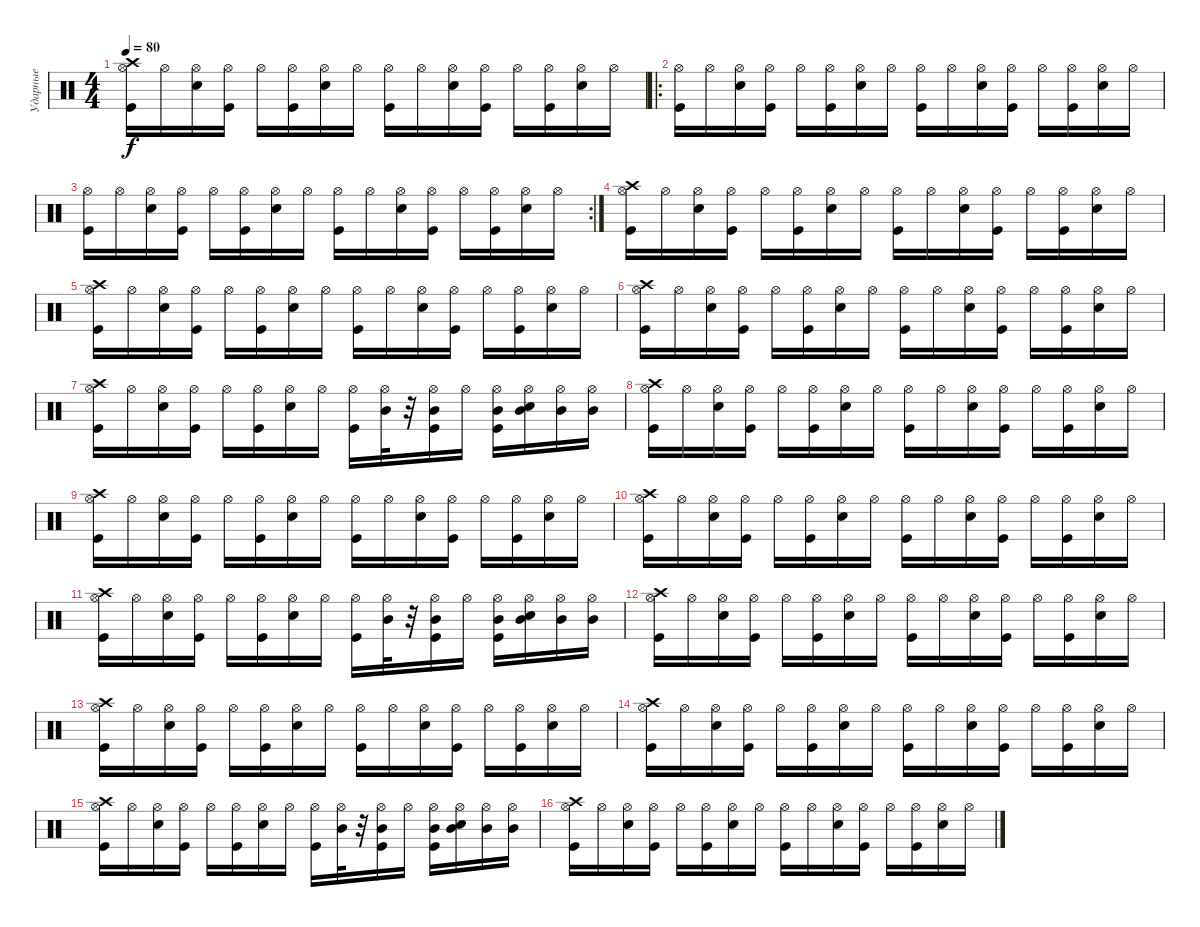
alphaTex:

\track ("Ударные" "Ударные") {instrument percussion}
\staff {score}
\articulation defaults
\ts (4 4)
\tempo 80
\clef neutral
\ks c
("Kick (hit)" "Crash high (hit)" "Hi-Hat (open)").16{dy f} "Hi-Hat (open)".16 ("Electric Snare (hit)" "Hi-Hat (open)").16 ("Kick (hit)" "Hi-Hat (open)").16 "Hi-Hat (open)".16 ("Hi-Hat (open)" "Kick (hit)").16 ("Hi-Hat (open)" "Electric Snare (hit)").16 "Hi-Hat (open)".16 ("Kick (hit)" "Hi-Hat (open)").16 "Hi-Hat (open)".16 ("Electric Snare (hit)" "Hi-Hat (open)").16 ("Kick (hit)" "Hi-Hat (open)").16 "Hi-Hat (open)".16 ("Hi-Hat (open)" "Kick (hit)").16 ("Hi-Hat (open)" "Electric Snare (hit)").16 "Hi-Hat (open)".16 |
\ro
("Kick (hit)" "Hi-Hat (open)").16 "Hi-Hat (open)".16 ("Electric Snare (hit)" "Hi-Hat (open)").16 ("Kick (hit)" "Hi-Hat (open)").16 "Hi-Hat (open)".16 ("Hi-Hat (open)" "Kick (hit)").16 ("Hi-Hat (open)" "Electric Snare (hit)").16 "Hi-Hat (open)".16 ("Kick (hit)" "Hi-Hat (open)").16 "Hi-Hat (open)".16 ("Electric Snare (hit)" "Hi-Hat (open)").16 ("Kick (hit)" "Hi-Hat (open)").16 "Hi-Hat (open)".16 ("Hi-Hat (open)" "Kick (hit)").16 ("Hi-Hat (open)" "Electric Snare (hit)").16 "Hi-Hat (open)".16 |
\rc 2
("Kick (hit)" "Hi-Hat (open)").16 "Hi-Hat (open)".16 ("Electric Snare (hit)" "Hi-Hat (open)").16 ("Kick (hit)" "Hi-Hat (open)").16 "Hi-Hat (open)".16 ("Hi-Hat (open)" "Kick (hit)").16 ("Hi-Hat (open)" "Electric Snare (hit)").16 "Hi-Hat (open)".16 ("Kick (hit)" "Hi-Hat (open)").16 "Hi-Hat (open)".16 ("Electric Snare (hit)" "Hi-Hat (open)").16 ("Kick (hit)" "Hi-Hat (open)").16 "Hi-Hat (open)".16 ("Hi-Hat (open)" "Kick (hit)").16 ("Hi-Hat (open)" "Electric Snare (hit)").16 "Hi-Hat (open)".16 |
("Kick (hit)" "Crash high (hit)" "Hi-Hat (open)").16 "Hi-Hat (open)".16 ("Electric Snare (hit)" "Hi-Hat (open)").16 ("Kick (hit)" "Hi-Hat (open)").16 "Hi-Hat (open)".16 ("Hi-Hat (open)" "Kick (hit)").16 ("Hi-Hat (open)" "Electric Snare (hit)").16 "Hi-Hat (open)".16 ("Kick (hit)" "Hi-Hat (open)").16 "Hi-Hat (open)".16 ("Electric Snare (hit)" "Hi-Hat (open)").16 ("Kick (hit)" "Hi-Hat (open)").16 "Hi-Hat (open)".16 ("Hi-Hat (open)" "Kick (hit)").16 ("Hi-Hat (open)" "Electric Snare (hit)").16 "Hi-Hat (open)".16 |
("Kick (hit)" "Crash high (hit)" "Hi-Hat (open)").16 "Hi-Hat (open)".16 ("Electric Snare (hit)" "Hi-Hat (open)").16 ("Kick (hit)" "Hi-Hat (open)").16 "Hi-Hat (open)".16 ("Hi-Hat (open)" "Kick (hit)").16 ("Hi-Hat (open)" "Electric Snare (hit)").16 "Hi-Hat (open)".16 ("Kick (hit)" "Hi-Hat (open)").16 "Hi-Hat (open)".16 ("Electric Snare (hit)" "Hi-Hat (open)").16 ("Kick (hit)" "Hi-Hat (open)").16 "Hi-Hat (open)".16 ("Hi-Hat (open)" "Kick (hit)").16 ("Hi-Hat (open)" "Electric Snare (hit)").16 "Hi-Hat (open)".16 |
("Kick (hit)" "Crash high (hit)" "Hi-Hat (open)").16 "Hi-Hat (open)".16 ("Electric Snare (hit)" "Hi-Hat (open)").16 ("Kick (hit)" "Hi-Hat (open)").16 "Hi-Hat (open)".16 ("Hi-Hat (open)" "Kick (hit)").16 ("Hi-Hat (open)" "Electric Snare (hit)").16 "Hi-Hat (open)".16 ("Kick (hit)" "Hi-Hat (open)").16 "Hi-Hat (open)".16 ("Electric Snare (hit)" "Hi-Hat (open)").16 ("Kick (hit)" "Hi-Hat (open)").16 "Hi-Hat (open)".16 ("Hi-Hat (open)" "Kick (hit)").16 ("Hi-Hat (open)" "Electric Snare (hit)").16 "Hi-Hat (open)".16 |
("Kick (hit)" "Crash high (hit)" "Hi-Hat (open)").16 "Hi-Hat (open)".16 ("Electric Snare (hit)" "Hi-Hat (open)").16 ("Kick (hit)" "Hi-Hat (open)").16 "Hi-Hat (open)".16 ("Hi-Hat (open)" "Kick (hit)").16 ("Hi-Hat (open)" "Electric Snare (hit)").16 "Hi-Hat (open)".16 ("Kick (hit)" "Hi-Hat (open)").16 ("Hi-Hat (open)" "Mid Tom (hit)").32 r.32 ("Kick (hit)" "Hi-Hat (open)" "Mid Tom (hit)").16 "Hi-Hat (open)".16 ("Hi-Hat (open)" "Kick (hit)" "Mid Tom (hit)").16 ("Hi-Hat (open)" "Electric Snare (hit)" "Mid Tom (hit)").16 ("Hi-Hat (open)" "Mid Tom (hit)").16 ("Hi-Hat (open)" "Mid Tom (hit)").16 |
("Kick (hit)" "Crash high (hit)" "Hi-Hat (open)").16 "Hi-Hat (open)".16 ("Electric Snare (hit)" "Hi-Hat (open)").16 ("Kick (hit)" "Hi-Hat (open)").16 "Hi-Hat (open)".16 ("Hi-Hat (open)" "Kick (hit)").16 ("Hi-Hat (open)" "Electric Snare (hit)").16 "Hi-Hat (open)".16 ("Kick (hit)" "Hi-Hat (open)").16 "Hi-Hat (open)".16 ("Electric Snare (hit)" "Hi-Hat (open)").16 ("Kick (hit)" "Hi-Hat (open)").16 "Hi-Hat (open)".16 ("Hi-Hat (open)" "Kick (hit)").16 ("Hi-Hat (open)" "Electric Snare (hit)").16 "Hi-Hat (open)".16 |
("Kick (hit)" "Crash high (hit)" "Hi-Hat (open)").16 "Hi-Hat (open)".16 ("Electric Snare (hit)" "Hi-Hat (open)").16 ("Kick (hit)" "Hi-Hat (open)").16 "Hi-Hat (open)".16 ("Hi-Hat (open)" "Kick (hit)").16 ("Hi-Hat (open)" "Electric Snare (hit)").16 "Hi-Hat (open)".16 ("Kick (hit)" "Hi-Hat (open)").16 "Hi-Hat (open)".16 ("Electric Snare (hit)" "Hi-Hat (open)").16 ("Kick (hit)" "Hi-Hat (open)").16 "Hi-Hat (open)".16 ("Hi-Hat (open)" "Kick (hit)").16 ("Hi-Hat (open)" "Electric Snare (hit)").16 "Hi-Hat (open)".16 |
("Kick (hit)" "Crash high (hit)" "Hi-Hat (open)").16 "Hi-Hat (open)".16 ("Electric Snare (hit)" "Hi-Hat (open)").16 ("Kick (hit)" "Hi-Hat (open)").16 "Hi-Hat (open)".16 ("Hi-Hat (open)" "Kick (hit)").16 ("Hi-Hat (open)" "Electric Snare (hit)").16 "Hi-Hat (open)".16 ("Kick (hit)" "Hi-Hat (open)").16 "Hi-Hat (open)".16 ("Electric Snare (hit)" "Hi-Hat (open)").16 ("Kick (hit)" "Hi-Hat (open)").16 "Hi-Hat (open)".16 ("Hi-Hat (open)" "Kick (hit)").16 ("Hi-Hat (open)" "Electric Snare (hit)").16 "Hi-Hat (open)".16 |
("Kick (hit)" "Crash high (hit)" "Hi-Hat (open)").16 "Hi-Hat (open)".16 ("Electric Snare (hit)" "Hi-Hat (open)").16 ("Kick (hit)" "Hi-Hat (open)").16 "Hi-Hat (open)".16 ("Hi-Hat (open)" "Kick (hit)").16 ("Hi-Hat (open)" "Electric Snare (hit)").16 "Hi-Hat (open)".16 ("Kick (hit)" "Hi-Hat (open)").16 ("Hi-Hat (open)" "Mid Tom (hit)").32 r.32 ("Kick (hit)" "Hi-Hat (open)" "Mid Tom (hit)").16 "Hi-Hat (open)".16 ("Hi-Hat (open)" "Kick (hit)" "Mid Tom (hit)").16 ("Hi-Hat (open)" "Electric Snare (hit)" "Mid Tom (hit)").16 ("Hi-Hat (open)" "Mid Tom (hit)").16 ("Hi-Hat (open)" "Mid Tom (hit)").16 |
("Kick (hit)" "Crash high (hit)" "Hi-Hat (open)").16 "Hi-Hat (open)".16 ("Electric Snare (hit)" "Hi-Hat (open)").16 ("Kick (hit)" "Hi-Hat (open)").16 "Hi-Hat (open)".16 ("Hi-Hat (open)" "Kick (hit)").16 ("Hi-Hat (open)" "Electric Snare (hit)").16 "Hi-Hat (open)".16 ("Kick (hit)" "Hi-Hat (open)").16 "Hi-Hat (open)".16 ("Electric Snare (hit)" "Hi-Hat (open)").16 ("Kick (hit)" "Hi-Hat (open)").16 "Hi-Hat (open)".16 ("Hi-Hat (open)" "Kick (hit)").16 ("Hi-Hat (open)" "Electric Snare (hit)").16 "Hi-Hat (open)".16 |
("Kick (hit)" "Crash high (hit)" "Hi-Hat (open)").16 "Hi-Hat (open)".16 ("Electric Snare (hit)" "Hi-Hat (open)").16 ("Kick (hit)" "Hi-Hat (open)").16 "Hi-Hat (open)".16 ("Hi-Hat (open)" "Kick (hit)").16 ("Hi-Hat (open)" "Electric Snare (hit)").16 "Hi-Hat (open)".16 ("Kick (hit)" "Hi-Hat (open)").16 "Hi-Hat (open)".16 ("Electric Snare (hit)" "Hi-Hat (open)").16 ("Kick (hit)" "Hi-Hat (open)").16 "Hi-Hat (open)".16 ("Hi-Hat (open)" "Kick (hit)").16 ("Hi-Hat (open)" "Electric Snare (hit)").16 "Hi-Hat (open)".16 |
("Kick (hit)" "Crash high (hit)" "Hi-Hat (open)").16 "Hi-Hat (open)".16 ("Electric Snare (hit)" "Hi-Hat (open)").16 ("Kick (hit)" "Hi-Hat (open)").16 "Hi-Hat (open)".16 ("Hi-Hat (open)" "Kick (hit)").16 ("Hi-Hat (open)" "Electric Snare (hit)").16 "Hi-Hat (open)".16 ("Kick (hit)" "Hi-Hat (open)").16 "Hi-Hat (open)".16 ("Electric Snare (hit)" "Hi-Hat (open)").16 ("Kick (hit)" "Hi-Hat (open)").16 "Hi-Hat (open)".16 ("Hi-Hat (open)" "Kick (hit)").16 ("Hi-Hat (open)" "Electric Snare (hit)").16 "Hi-Hat (open)".16 |
("Kick (hit)" "Crash high (hit)" "Hi-Hat (open)").16 "Hi-Hat (open)".16 ("Electric Snare (hit)" "Hi-Hat (open)").16 ("Kick (hit)" "Hi-Hat (open)").16 "Hi-Hat (open)".16 ("Hi-Hat (open)" "Kick (hit)").16 ("Hi-Hat (open)" "Electric Snare (hit)").16 "Hi-Hat (open)".16 ("Kick (hit)" "Hi-Hat (open)").16 ("Hi-Hat (open)" "Mid Tom (hit)").32 r.32 ("Kick (hit)" "Hi-Hat (open)" "Mid Tom (hit)").16 "Hi-Hat (open)".16 ("Hi-Hat (open)" "Kick (hit)" "Mid Tom (hit)").16 ("Hi-Hat (open)" "Electric Snare (hit)" "Mid Tom (hit)").16 ("Hi-Hat (open)" "Mid Tom (hit)").16 ("Hi-Hat (open)" "Mid Tom (hit)").16 |
("Kick (hit)" "Crash high (hit)" "Hi-Hat (open)").16 "Hi-Hat (open)".16 ("Electric Snare (hit)" "Hi-Hat (open)").16 ("Kick (hit)" "Hi-Hat (open)").16 "Hi-Hat (open)".16 ("Hi-Hat (open)" "Kick (hit)").16 ("Hi-Hat (open)" "Electric Snare (hit)").16 "Hi-Hat (open)".16 ("Kick (hit)" "Hi-Hat (open)").16 "Hi-Hat (open)".16 ("Electric Snare (hit)" "Hi-Hat (open)").16 ("Kick (hit)" "Hi-Hat (open)").16 "Hi-Hat (open)".16 ("Hi-Hat (open)" "Kick (hit)").16 ("Hi-Hat (open)" "Electric Snare (hit)").16 "Hi-Hat (open)".16
